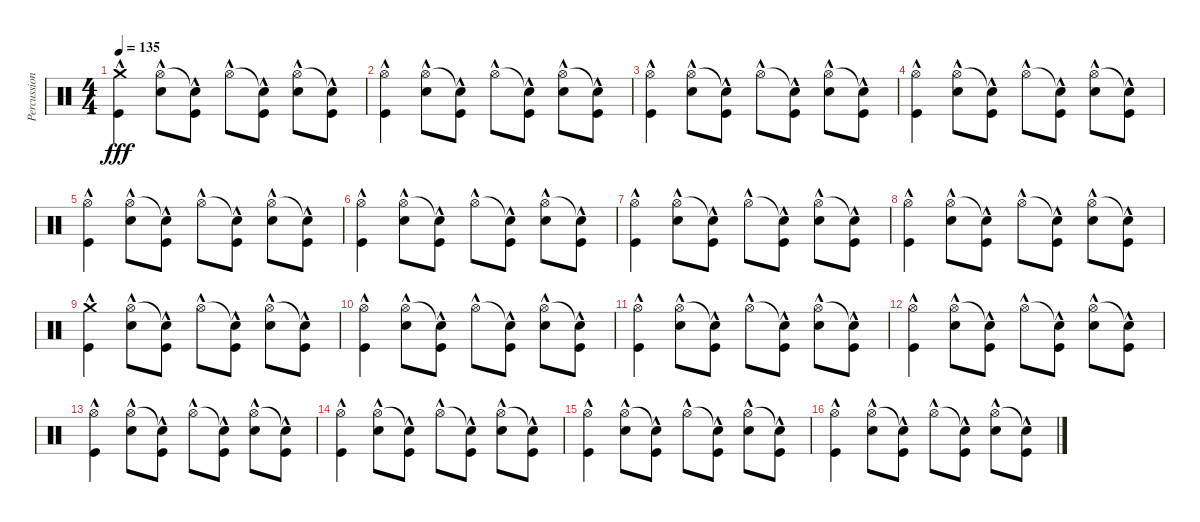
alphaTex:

\track ("Percussions" "Percussion") {instrument percussion}
\staff {score}
\articulation defaults
\ts (4 4)
\tempo 135
\clef neutral
\ks c
("Crash medium (hit)"{hac} "Kick (hit)"{hac}).4{dy fff} ("Hi-Hat (open)"{hac} "Electric Snare (hit)"{hac}).8 ("Snare (hit)"{t} "Kick (hit)"{hac}).8 "Hi-Hat (open)"{hac}.8 ("Snare (hit)"{t} "Kick (hit)"{hac}).8 ("Hi-Hat (open)"{hac} "Electric Snare (hit)"{hac}).8 ("Snare (hit)"{t} "Kick (hit)"{hac}).8 |
("Hi-Hat (open)"{hac} "Kick (hit)"{hac}).4 ("Hi-Hat (open)"{hac} "Electric Snare (hit)"{hac}).8 ("Snare (hit)"{t} "Kick (hit)"{hac}).8 "Hi-Hat (open)"{hac}.8 ("Snare (hit)"{t} "Kick (hit)"{hac}).8 ("Hi-Hat (open)"{hac} "Electric Snare (hit)"{hac}).8 ("Snare (hit)"{t} "Kick (hit)"{hac}).8 |
("Hi-Hat (open)"{hac} "Kick (hit)"{hac}).4 ("Hi-Hat (open)"{hac} "Electric Snare (hit)"{hac}).8 ("Snare (hit)"{t} "Kick (hit)"{hac}).8 "Hi-Hat (open)"{hac}.8 ("Snare (hit)"{t} "Kick (hit)"{hac}).8 ("Hi-Hat (open)"{hac} "Electric Snare (hit)"{hac}).8 ("Snare (hit)"{t} "Kick (hit)"{hac}).8 |
("Hi-Hat (open)"{hac} "Kick (hit)"{hac}).4 ("Hi-Hat (open)"{hac} "Electric Snare (hit)"{hac}).8 ("Snare (hit)"{t} "Kick (hit)"{hac}).8 "Hi-Hat (open)"{hac}.8 ("Snare (hit)"{t} "Kick (hit)"{hac}).8 ("Hi-Hat (open)"{hac} "Electric Snare (hit)"{hac}).8 ("Snare (hit)"{t} "Kick (hit)"{hac}).8 |
("Hi-Hat (open)"{hac} "Kick (hit)"{hac}).4 ("Hi-Hat (open)"{hac} "Electric Snare (hit)"{hac}).8 ("Snare (hit)"{t} "Kick (hit)"{hac}).8 "Hi-Hat (open)"{hac}.8 ("Snare (hit)"{t} "Kick (hit)"{hac}).8 ("Hi-Hat (open)"{hac} "Electric Snare (hit)"{hac}).8 ("Snare (hit)"{t} "Kick (hit)"{hac}).8 |
("Hi-Hat (open)"{hac} "Kick (hit)"{hac}).4 ("Hi-Hat (open)"{hac} "Electric Snare (hit)"{hac}).8 ("Snare (hit)"{t} "Kick (hit)"{hac}).8 "Hi-Hat (open)"{hac}.8 ("Snare (hit)"{t} "Kick (hit)"{hac}).8 ("Hi-Hat (open)"{hac} "Electric Snare (hit)"{hac}).8 ("Snare (hit)"{t} "Kick (hit)"{hac}).8 |
("Hi-Hat (open)"{hac} "Kick (hit)"{hac}).4 ("Hi-Hat (open)"{hac} "Electric Snare (hit)"{hac}).8 ("Snare (hit)"{t} "Kick (hit)"{hac}).8 "Hi-Hat (open)"{hac}.8 ("Snare (hit)"{t} "Kick (hit)"{hac}).8 ("Hi-Hat (open)"{hac} "Electric Snare (hit)"{hac}).8 ("Snare (hit)"{t} "Kick (hit)"{hac}).8 |
("Hi-Hat (open)"{hac} "Kick (hit)"{hac}).4 ("Hi-Hat (open)"{hac} "Electric Snare (hit)"{hac}).8 ("Snare (hit)"{t} "Kick (hit)"{hac}).8 "Hi-Hat (open)"{hac}.8 ("Snare (hit)"{t} "Kick (hit)"{hac}).8 ("Hi-Hat (open)"{hac} "Electric Snare (hit)"{hac}).8 ("Snare (hit)"{t} "Kick (hit)"{hac}).8 |
("Crash medium (hit)"{hac} "Kick (hit)"{hac}).4 ("Hi-Hat (open)"{hac} "Electric Snare (hit)"{hac}).8 ("Snare (hit)"{t} "Kick (hit)"{hac}).8 "Hi-Hat (open)"{hac}.8 ("Snare (hit)"{t} "Kick (hit)"{hac}).8 ("Hi-Hat (open)"{hac} "Electric Snare (hit)"{hac}).8 ("Snare (hit)"{t} "Kick (hit)"{hac}).8 |
("Hi-Hat (open)"{hac} "Kick (hit)"{hac}).4 ("Hi-Hat (open)"{hac} "Electric Snare (hit)"{hac}).8 ("Snare (hit)"{t} "Kick (hit)"{hac}).8 "Hi-Hat (open)"{hac}.8 ("Snare (hit)"{t} "Kick (hit)"{hac}).8 ("Hi-Hat (open)"{hac} "Electric Snare (hit)"{hac}).8 ("Snare (hit)"{t} "Kick (hit)"{hac}).8 |
("Hi-Hat (open)"{hac} "Kick (hit)"{hac}).4 ("Hi-Hat (open)"{hac} "Electric Snare (hit)"{hac}).8 ("Snare (hit)"{t} "Kick (hit)"{hac}).8 "Hi-Hat (open)"{hac}.8 ("Snare (hit)"{t} "Kick (hit)"{hac}).8 ("Hi-Hat (open)"{hac} "Electric Snare (hit)"{hac}).8 ("Snare (hit)"{t} "Kick (hit)"{hac}).8 |
("Hi-Hat (open)"{hac} "Kick (hit)"{hac}).4 ("Hi-Hat (open)"{hac} "Electric Snare (hit)"{hac}).8 ("Snare (hit)"{t} "Kick (hit)"{hac}).8 "Hi-Hat (open)"{hac}.8 ("Snare (hit)"{t} "Kick (hit)"{hac}).8 ("Hi-Hat (open)"{hac} "Electric Snare (hit)"{hac}).8 ("Snare (hit)"{t} "Kick (hit)"{hac}).8 |
("Hi-Hat (open)"{hac} "Kick (hit)"{hac}).4 ("Hi-Hat (open)"{hac} "Electric Snare (hit)"{hac}).8 ("Snare (hit)"{t} "Kick (hit)"{hac}).8 "Hi-Hat (open)"{hac}.8 ("Snare (hit)"{t} "Kick (hit)"{hac}).8 ("Hi-Hat (open)"{hac} "Electric Snare (hit)"{hac}).8 ("Snare (hit)"{t} "Kick (hit)"{hac}).8 |
("Hi-Hat (open)"{hac} "Kick (hit)"{hac}).4 ("Hi-Hat (open)"{hac} "Electric Snare (hit)"{hac}).8 ("Snare (hit)"{t} "Kick (hit)"{hac}).8 "Hi-Hat (open)"{hac}.8 ("Snare (hit)"{t} "Kick (hit)"{hac}).8 ("Hi-Hat (open)"{hac} "Electric Snare (hit)"{hac}).8 ("Snare (hit)"{t} "Kick (hit)"{hac}).8 |
("Hi-Hat (open)"{hac} "Kick (hit)"{hac}).4 ("Hi-Hat (open)"{hac} "Electric Snare (hit)"{hac}).8 ("Snare (hit)"{t} "Kick (hit)"{hac}).8 "Hi-Hat (open)"{hac}.8 ("Snare (hit)"{t} "Kick (hit)"{hac}).8 ("Hi-Hat (open)"{hac} "Electric Snare (hit)"{hac}).8 ("Snare (hit)"{t} "Kick (hit)"{hac}).8 |
("Hi-Hat (open)"{hac} "Kick (hit)"{hac}).4 ("Hi-Hat (open)"{hac} "Electric Snare (hit)"{hac}).8 ("Snare (hit)"{t} "Kick (hit)"{hac}).8 "Hi-Hat (open)"{hac}.8 ("Snare (hit)"{t} "Kick (hit)"{hac}).8 ("Hi-Hat (open)"{hac} "Electric Snare (hit)"{hac}).8 ("Snare (hit)"{t} "Kick (hit)"{hac}).8
